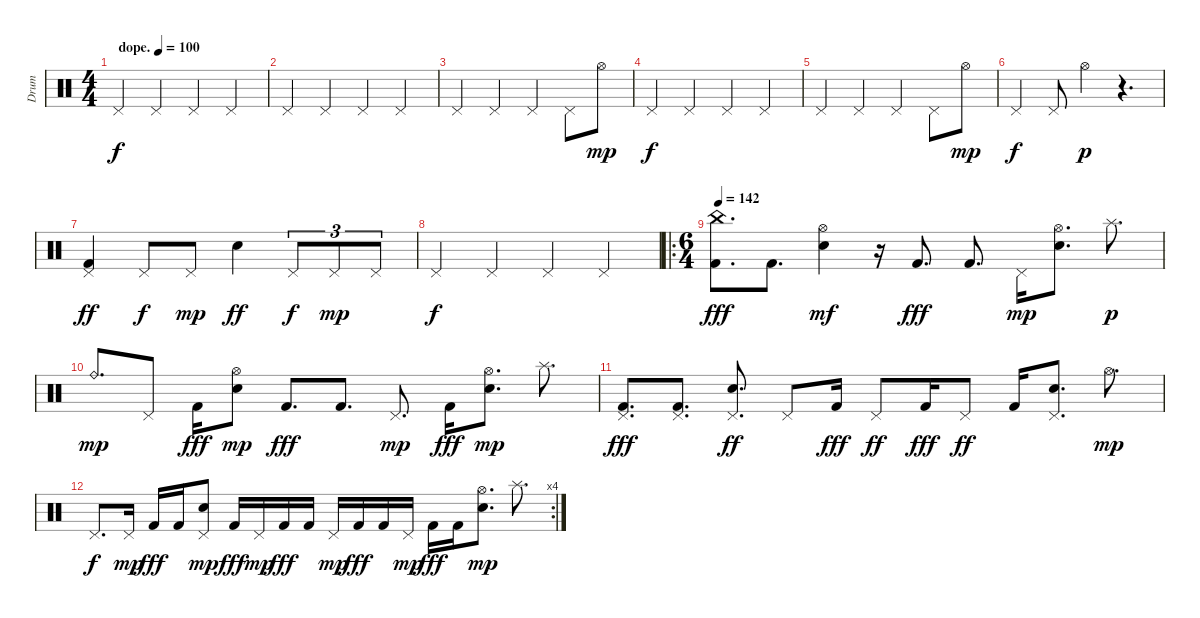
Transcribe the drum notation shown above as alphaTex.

\track ("Drum" "Drum") {solo instrument percussion}
\staff {score}
\articulation defaults
\ts (4 4)
\tempo (100 "dope.")
\clef neutral
\ks c "Pedal Hi-Hat (hit)".4{dy f} "Pedal Hi-Hat (hit)".4 "Pedal Hi-Hat (hit)".4 "Pedal Hi-Hat (hit)".4
|
"Pedal Hi-Hat (hit)".4 "Pedal Hi-Hat (hit)".4 "Pedal Hi-Hat (hit)".4 "Pedal Hi-Hat (hit)".4 |
"Pedal Hi-Hat (hit)".4 "Pedal Hi-Hat (hit)".4 "Pedal Hi-Hat (hit)".4 "Pedal Hi-Hat (hit)".8 "Hi-Hat (open)".8{dy mp} |
"Pedal Hi-Hat (hit)".4{dy f} "Pedal Hi-Hat (hit)".4 "Pedal Hi-Hat (hit)".4 "Pedal Hi-Hat (hit)".4 |
"Pedal Hi-Hat (hit)".4 "Pedal Hi-Hat (hit)".4 "Pedal Hi-Hat (hit)".4 "Pedal Hi-Hat (hit)".8 "Hi-Hat (open)".8{dy mp} |
"Pedal Hi-Hat (hit)".4{dy f} "Pedal Hi-Hat (hit)".8 "Hi-Hat (open)".4{dy p} r.4{d} |
("Pedal Hi-Hat (hit)" "Kick (hit) 2").4{dy ff} "Pedal Hi-Hat (hit)".8{dy f} "Pedal Hi-Hat (hit)".8{dy mp} "Electric Snare (hit)".4{dy ff} "Pedal Hi-Hat (hit)".8{tu (3 2) dy f} "Pedal Hi-Hat (hit)".8{tu (3 2) dy mp} "Pedal Hi-Hat (hit)".8{tu (3 2)} |
"Pedal Hi-Hat (hit)".4{dy f} "Pedal Hi-Hat (hit)".4 "Pedal Hi-Hat (hit)".4 "Pedal Hi-Hat (hit)".4 |
\ro
\ts (6 4)
\tempo 142
("China (hit)" "Kick (hit) 2").8{d dy fff} "Kick (hit) 2".8{d} ("Hi-Hat (open)" "Electric Snare (hit)").4{dy mf} r.16 "Kick (hit) 2".8{d dy fff} "Kick (hit) 2".8{d} "Pedal Hi-Hat (hit)".16{dy mp} ("Hi-Hat (open)" "Electric Snare (hit)").8{d} "Splash (hit)".8{d dy p} |
"Ride (bell)".8{d dy mp} "Pedal Hi-Hat (hit)".8 "Kick (hit) 2".16{dy fff} ("Hi-Hat (open)" "Electric Snare (hit)").8{dy mp} "Kick (hit) 2".8{d dy fff} "Kick (hit) 2".8{d} "Pedal Hi-Hat (hit)".8{d dy mp} "Kick (hit) 2".16{dy fff} ("Hi-Hat (open)" "Electric Snare (hit)").8{d dy mp} "Splash (hit)".8{d} |
("Pedal Hi-Hat (hit)" "Kick (hit) 2").8{d dy fff} ("Pedal Hi-Hat (hit)" "Kick (hit) 2").8{d} ("Pedal Hi-Hat (hit)" "Electric Snare (hit)").8{d dy ff} "Pedal Hi-Hat (hit)".8 "Kick (hit) 2".16{dy fff} "Pedal Hi-Hat (hit)".8{dy ff} "Kick (hit) 2".16{dy fff} "Pedal Hi-Hat (hit)".8{dy ff} "Kick (hit) 2".16 ("Pedal Hi-Hat (hit)" "Electric Snare (hit)").8{d} "Hi-Hat (open)".8{d dy mp} |
\rc 4 "Pedal Hi-Hat (hit)".8{d dy f} "Pedal Hi-Hat (hit)".16{dy mp} "Kick (hit) 2".16{dy fff} "Kick (hit) 2".16
("Pedal Hi-Hat (hit)" "Electric Snare (hit)").8{dy mp} "Kick (hit) 2".16{dy fff} "Pedal Hi-Hat (hit)".16{dy mp} "Kick (hit) 2".16{dy fff} "Kick (hit) 2".16 "Pedal Hi-Hat (hit)".16{dy mp} "Kick (hit) 2".16{dy fff} "Kick (hit) 2".16 "Pedal Hi-Hat (hit)".16{dy mp} "Kick (hit) 2".16{dy fff} "Kick (hit) 2".16 ("Hi-Hat (open)" "Electric Snare (hit)").8{d dy mp} "Splash (hit)".8{d}
